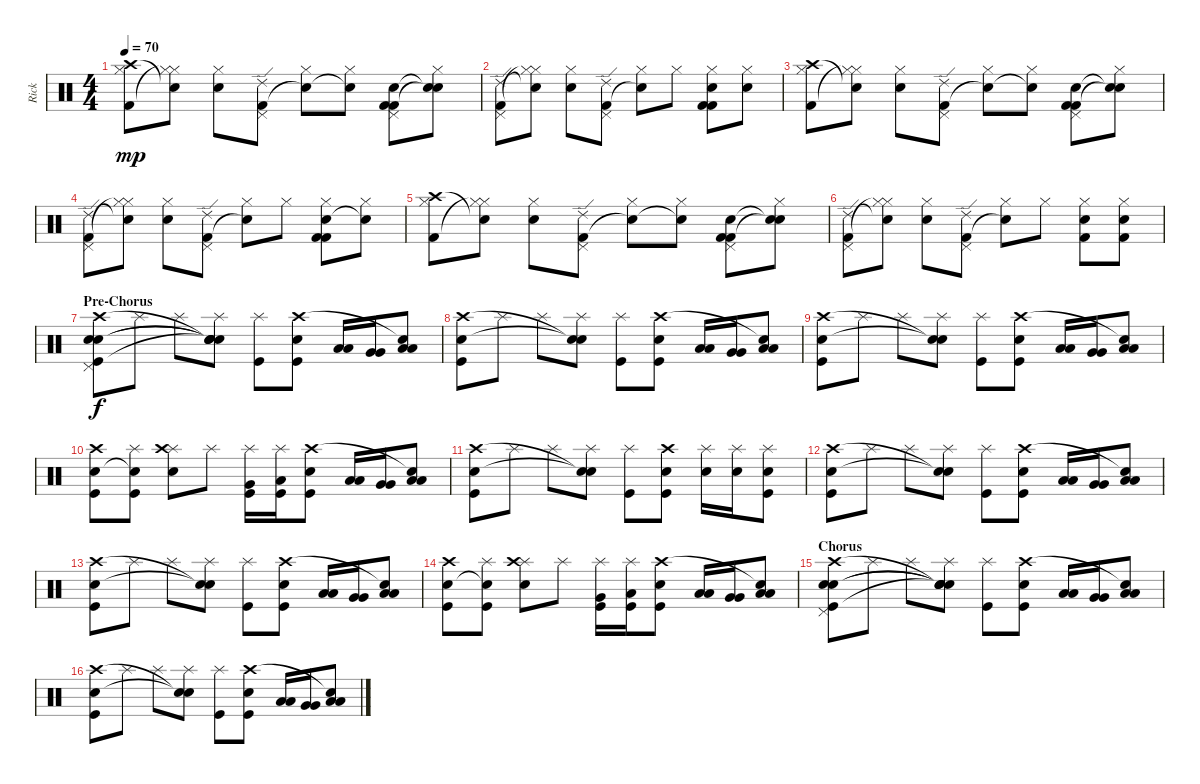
\track ("Rick" "Rick") {instrument percussion}
\staff {score}
\articulation defaults
\ts (4 4)
\tempo 70
\clef neutral
\ks c
("Hi-Hat (closed)" "Kick (hit) 2" "Crash high (hit)").8{dy mp} ("Hi-Hat (closed)" "Hi-Hat (closed)"{t} "Snare (hit)"{t}).8 ("Hi-Hat (closed)" "Electric Snare (hit)").8 ("Pedal Hi-Hat (hit)" "Kick (hit) 2" "Ride (edge) 2").8 ("Hi-Hat (closed)" "Snare (hit)"{t}).8 ("Hi-Hat (closed)" "Snare (hit)"{t}).8 ("Pedal Hi-Hat (hit)" "Electric Snare (hit)" "Kick (hit) 2" "Kick (hit) 2").8 ("Hi-Hat (closed)" "Snare (hit)"{t} "Snare (hit)"{t}).8 |
("Pedal Hi-Hat (hit)" "Kick (hit) 2" "Ride (edge) 2").8 ("Hi-Hat (closed)" "Hi-Hat (closed)"{t} "Snare (hit)"{t}).8 ("Hi-Hat (closed)" "Electric Snare (hit)").8 ("Pedal Hi-Hat (hit)" "Kick (hit) 2" "Ride (edge) 2").8 ("Hi-Hat (closed)" "Snare (hit)"{t}).8 "Hi-Hat (closed)".8 ("Hi-Hat (closed)" "Electric Snare (hit)" "Kick (hit) 2" "Kick (hit) 2").8 ("Hi-Hat (closed)" "Electric Snare (hit)").8 |
("Hi-Hat (closed)" "Kick (hit) 2" "Crash high (hit)").8 ("Hi-Hat (closed)" "Hi-Hat (closed)"{t} "Snare (hit)"{t}).8 ("Hi-Hat (closed)" "Electric Snare (hit)").8 ("Pedal Hi-Hat (hit)" "Kick (hit) 2" "Ride (edge) 2").8 ("Hi-Hat (closed)" "Snare (hit)"{t}).8 ("Hi-Hat (closed)" "Snare (hit)"{t}).8 ("Pedal Hi-Hat (hit)" "Electric Snare (hit)" "Kick (hit) 2" "Kick (hit) 2").8 ("Hi-Hat (closed)" "Snare (hit)"{t} "Snare (hit)"{t}).8 |
("Pedal Hi-Hat (hit)" "Kick (hit) 2" "Ride (edge) 2").8 ("Hi-Hat (closed)" "Hi-Hat (closed)"{t} "Snare (hit)"{t}).8 ("Hi-Hat (closed)" "Electric Snare (hit)").8 ("Pedal Hi-Hat (hit)" "Kick (hit) 2" "Ride (edge) 2").8 ("Hi-Hat (closed)" "Snare (hit)"{t}).8 "Hi-Hat (closed)".8 ("Hi-Hat (closed)" "Electric Snare (hit)" "Kick (hit) 2" "Kick (hit) 2").8 ("Hi-Hat (closed)" "Snare (hit)"{t}).8 |
("Hi-Hat (closed)" "Kick (hit) 2" "Crash high (hit)").8 ("Hi-Hat (closed)" "Hi-Hat (closed)"{t} "Snare (hit)"{t}).8 ("Hi-Hat (closed)" "Electric Snare (hit)").8 ("Pedal Hi-Hat (hit)" "Kick (hit) 2" "Ride (edge) 2").8 ("Hi-Hat (closed)" "Snare (hit)"{t}).8 ("Hi-Hat (closed)" "Electric Snare (hit)"{t}).8 ("Pedal Hi-Hat (hit)" "Electric Snare (hit)" "Kick (hit) 2" "Kick (hit) 2").8 ("Hi-Hat (closed)" "Snare (hit)"{t} "Snare (hit)"{t}).8 |
("Pedal Hi-Hat (hit)" "Kick (hit) 2" "Ride (edge) 2").8 ("Hi-Hat (closed)" "Hi-Hat (closed)"{t} "Snare (hit)"{t}).8 ("Hi-Hat (closed)" "Electric Snare (hit)").8 ("Pedal Hi-Hat (hit)" "Kick (hit) 2" "Ride (edge) 2").8 ("Hi-Hat (closed)" "Snare (hit)"{t}).8 "Hi-Hat (closed)".8 ("Hi-Hat (closed)" "Electric Snare (hit)" "Kick (hit) 2").8 ("Hi-Hat (closed)" "Electric Snare (hit)" "Kick (hit) 2").8 |
\section ("" "Pre-Chorus")
("Pedal Hi-Hat (hit)" "Kick (hit)" "Electric Snare (hit)" "Electric Snare (hit)" "Crash high (hit)").8{dy f} "Splash (hit)".8 "Splash (hit)".8 ("Splash (hit)" "Snare (hit)"{t} "Snare (hit)"{t} "Snare (hit)"{t} "Snare (hit)"{t}).8 ("Splash (hit)" "Kick (hit)").8 ("Kick (hit)" "Electric Snare (hit)" "Crash high (hit)").8 ("Low Tom (hit)" "Low Tom (hit)").16 ("Very Low Tom (hit)" "Very Low Tom (hit)").16 ("Low Floor Tom (hit)" "Low Floor Tom (hit)" "Snare (hit)"{t}).8 |
("Kick (hit)" "Crash high (hit)" "Electric Snare (hit)").8 "Splash (hit)".8 "Splash (hit)".8 ("Splash (hit)" "Snare (hit)"{t} "Snare (hit)"{t}).8 ("Splash (hit)" "Kick (hit)").8 ("Kick (hit)" "Electric Snare (hit)" "Crash high (hit)").8 ("Low Tom (hit)" "Low Tom (hit)").16 ("Very Low Tom (hit)" "Very Low Tom (hit)").16 ("Low Floor Tom (hit)" "Low Floor Tom (hit)" "Snare (hit)"{t}).8 |
("Kick (hit)" "Crash high (hit)" "Electric Snare (hit)").8 "Splash (hit)".8 "Splash (hit)".8 ("Splash (hit)" "Snare (hit)"{t} "Snare (hit)"{t}).8 ("Splash (hit)" "Kick (hit)").8 ("Kick (hit)" "Electric Snare (hit)" "Crash high (hit)").8 ("Low Tom (hit)" "Low Tom (hit)").16 ("Very Low Tom (hit)" "Very Low Tom (hit)").16 ("Low Floor Tom (hit)" "Low Floor Tom (hit)" "Snare (hit)"{t}).8 |
("Kick (hit)" "Crash high (hit)" "Electric Snare (hit)").8 ("Splash (hit)" "Kick (hit)" "Snare (hit)"{t}).8 ("Splash (hit)" "Electric Snare (hit)" "Crash high (hit)").8 "Splash (hit)".8 ("Splash (hit)" "Kick (hit)" "Very Low Tom (hit)").16 ("Splash (hit)" "Kick (hit)" "Low Tom (hit)").16 ("Kick (hit)" "Electric Snare (hit)" "Crash high (hit)").8 ("Low Tom (hit)" "Low Tom (hit)").16 ("Very Low Tom (hit)" "Very Low Tom (hit)").16 ("Low Floor Tom (hit)" "Low Floor Tom (hit)" "Snare (hit)"{t}).8 |
("Kick (hit)" "Crash high (hit)" "Electric Snare (hit)").8 "Splash (hit)".8 "Splash (hit)".8 ("Splash (hit)" "Snare (hit)"{t} "Snare (hit)"{t}).8 ("Splash (hit)" "Kick (hit)").8 ("Kick (hit)" "Electric Snare (hit)" "Crash high (hit)").8 ("Splash (hit)" "Electric Snare (hit)").16 ("Splash (hit)" "Electric Snare (hit)").16 ("Kick (hit)" "Electric Snare (hit)" "Splash (hit)").8 |
("Kick (hit)" "Crash high (hit)" "Electric Snare (hit)").8 "Splash (hit)".8 "Splash (hit)".8 ("Splash (hit)" "Snare (hit)"{t} "Snare (hit)"{t}).8 ("Splash (hit)" "Kick (hit)").8 ("Kick (hit)" "Electric Snare (hit)" "Crash high (hit)").8 ("Low Tom (hit)" "Low Tom (hit)").16 ("Very Low Tom (hit)" "Very Low Tom (hit)").16 ("Low Floor Tom (hit)" "Low Floor Tom (hit)" "Snare (hit)"{t}).8 |
("Kick (hit)" "Crash high (hit)" "Electric Snare (hit)").8 "Splash (hit)".8 "Splash (hit)".8 ("Splash (hit)" "Snare (hit)"{t} "Snare (hit)"{t}).8 ("Splash (hit)" "Kick (hit)").8 ("Kick (hit)" "Electric Snare (hit)" "Crash high (hit)").8 ("Low Tom (hit)" "Low Tom (hit)").16 ("Very Low Tom (hit)" "Very Low Tom (hit)").16 ("Low Floor Tom (hit)" "Low Floor Tom (hit)" "Snare (hit)"{t}).8 |
("Kick (hit)" "Crash high (hit)" "Electric Snare (hit)").8 ("Splash (hit)" "Kick (hit)" "Snare (hit)"{t}).8 ("Splash (hit)" "Electric Snare (hit)" "Crash high (hit)").8 "Splash (hit)".8 ("Splash (hit)" "Kick (hit)" "Very Low Tom (hit)").16 ("Splash (hit)" "Kick (hit)" "Low Tom (hit)").16 ("Kick (hit)" "Electric Snare (hit)" "Crash high (hit)").8 ("Low Tom (hit)" "Low Tom (hit)").16 ("Very Low Tom (hit)" "Very Low Tom (hit)").16 ("Low Floor Tom (hit)" "Low Floor Tom (hit)" "Snare (hit)"{t}).8 |
\section ("" "Chorus")
("Pedal Hi-Hat (hit)" "Kick (hit)" "Electric Snare (hit)" "Electric Snare (hit)" "Crash high (hit)").8 "Splash (hit)".8 "Splash (hit)".8 ("Splash (hit)" "Snare (hit)"{t} "Snare (hit)"{t} "Snare (hit)"{t} "Snare (hit)"{t}).8 ("Splash (hit)" "Kick (hit)").8 ("Kick (hit)" "Electric Snare (hit)" "Crash high (hit)").8 ("Low Tom (hit)" "Low Tom (hit)").16 ("Very Low Tom (hit)" "Very Low Tom (hit)").16 ("Low Floor Tom (hit)" "Low Floor Tom (hit)" "Snare (hit)"{t}).8 |
("Kick (hit)" "Crash high (hit)" "Electric Snare (hit)").8 "Splash (hit)".8 "Splash (hit)".8 ("Splash (hit)" "Snare (hit)"{t} "Snare (hit)"{t}).8 ("Splash (hit)" "Kick (hit)").8 ("Kick (hit)" "Electric Snare (hit)" "Crash high (hit)").8 ("Low Tom (hit)" "Low Tom (hit)").16 ("Very Low Tom (hit)" "Very Low Tom (hit)").16 ("Low Floor Tom (hit)" "Low Floor Tom (hit)" "Snare (hit)"{t}).8
